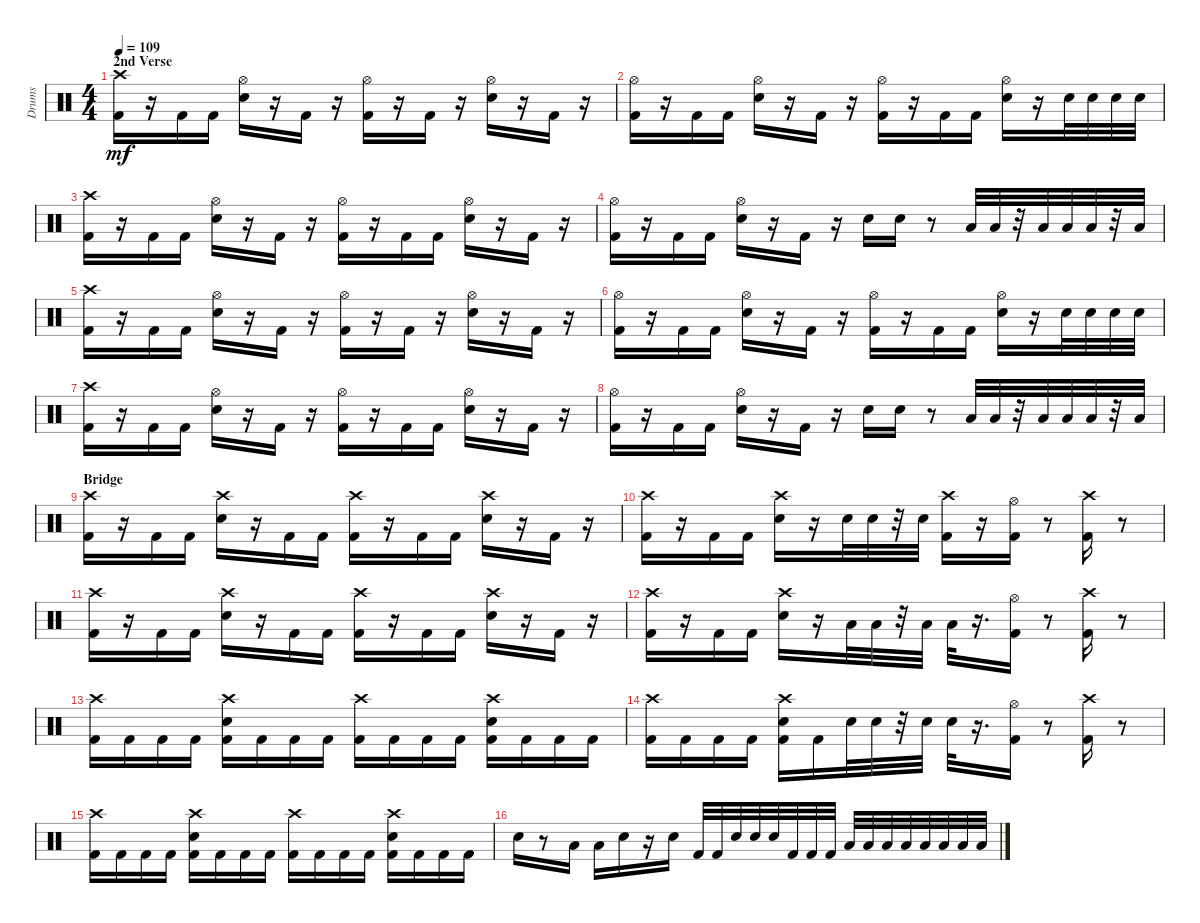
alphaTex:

\track ("Drums" "Drums") {instrument percussion}
\staff {score}
\articulation defaults
\ts (4 4)
\section ("" "2nd Verse")
\tempo 109
\clef neutral
\ks c
("Crash high (hit)" "Kick (hit) 2").16{dy mf} r.16 "Kick (hit) 2".16 "Kick (hit) 2".16 ("Hi-Hat (open)" "Snare (hit) 2").16 r.16 "Kick (hit) 2".16 r.16 ("Hi-Hat (open)" "Kick (hit) 2").16 r.16 "Kick (hit) 2".16 r.16 ("Hi-Hat (open)" "Snare (hit) 2").16 r.16 "Kick (hit) 2".16 r.16 |
("Kick (hit) 2" "Hi-Hat (open)").16 r.16 "Kick (hit) 2".16 "Kick (hit) 2".16 ("Snare (hit) 2" "Hi-Hat (open)").16 r.16 "Kick (hit) 2".16 r.16 ("Kick (hit) 2" "Hi-Hat (open)").16 r.16 "Kick (hit) 2".16 "Kick (hit) 2".16 ("Hi-Hat (open)" "Snare (hit) 2").16 r.16 "Snare (hit) 2".32 "Snare (hit) 2".32 "Snare (hit) 2".32 "Snare (hit) 2".32 |
("Crash high (hit)" "Kick (hit) 2").16 r.16 "Kick (hit) 2".16 "Kick (hit) 2".16 ("Hi-Hat (open)" "Snare (hit) 2").16 r.16 "Kick (hit) 2".16 r.16 ("Hi-Hat (open)" "Kick (hit) 2").16 r.16 "Kick (hit) 2".16 "Kick (hit) 2".16 ("Hi-Hat (open)" "Snare (hit) 2").16 r.16 "Kick (hit) 2".16 r.16 |
("Kick (hit) 2" "Hi-Hat (open)").16 r.16 "Kick (hit) 2".16 "Kick (hit) 2".16 ("Snare (hit) 2" "Hi-Hat (open)").16 r.16 "Kick (hit) 2".16 r.16 "Snare (hit) 2".16 "Snare (hit) 2".16 r.8 "Low Tom (hit)".32 "Low Tom (hit)".32 r.32 "Low Tom (hit)".32 "Low Floor Tom (hit)".32 "Low Floor Tom (hit)".32 r.32 "Low Floor Tom (hit)".32 |
("Crash high (hit)" "Kick (hit) 2").16 r.16 "Kick (hit) 2".16 "Kick (hit) 2".16 ("Hi-Hat (open)" "Snare (hit) 2").16 r.16 "Kick (hit) 2".16 r.16 ("Hi-Hat (open)" "Kick (hit) 2").16 r.16 "Kick (hit) 2".16 r.16 ("Hi-Hat (open)" "Snare (hit) 2").16 r.16 "Kick (hit) 2".16 r.16 |
("Kick (hit) 2" "Hi-Hat (open)").16 r.16 "Kick (hit) 2".16 "Kick (hit) 2".16 ("Snare (hit) 2" "Hi-Hat (open)").16 r.16 "Kick (hit) 2".16 r.16 ("Kick (hit) 2" "Hi-Hat (open)").16 r.16 "Kick (hit) 2".16 "Kick (hit) 2".16 ("Hi-Hat (open)" "Snare (hit) 2").16 r.16 "Snare (hit) 2".32 "Snare (hit) 2".32 "Snare (hit) 2".32 "Snare (hit) 2".32 |
("Crash high (hit)" "Kick (hit) 2").16 r.16 "Kick (hit) 2".16 "Kick (hit) 2".16 ("Hi-Hat (open)" "Snare (hit) 2").16 r.16 "Kick (hit) 2".16 r.16 ("Hi-Hat (open)" "Kick (hit) 2").16 r.16 "Kick (hit) 2".16 "Kick (hit) 2".16 ("Hi-Hat (open)" "Snare (hit) 2").16 r.16 "Kick (hit) 2".16 r.16 |
("Kick (hit) 2" "Hi-Hat (open)").16 r.16 "Kick (hit) 2".16 "Kick (hit) 2".16 ("Snare (hit) 2" "Hi-Hat (open)").16 r.16 "Kick (hit) 2".16 r.16 "Snare (hit) 2".16 "Snare (hit) 2".16 r.8 "Low Tom (hit)".32 "Low Tom (hit)".32 r.32 "Low Tom (hit)".32 "Low Floor Tom (hit)".32 "Low Floor Tom (hit)".32 r.32 "Low Floor Tom (hit)".32 |
\section ("" "Bridge")
("Crash high (hit)" "Kick (hit) 2").16 r.16 "Kick (hit) 2".16 "Kick (hit) 2".16 ("Snare (hit) 2" "Crash high (hit)").16 r.16 "Kick (hit) 2".16 "Kick (hit) 2".16 ("Kick (hit) 2" "Crash high (hit)").16 r.16 "Kick (hit) 2".16 "Kick (hit) 2".16 ("Snare (hit) 2" "Crash high (hit)").16 r.16 "Kick (hit) 2".16 r.16 |
("Kick (hit) 2" "Crash high (hit)").16 r.16 "Kick (hit) 2".16 "Kick (hit) 2".16 ("Snare (hit) 2" "Crash high (hit)").16 r.16 "Snare (hit) 2".32 "Snare (hit) 2".32 r.32 "Snare (hit) 2".32 ("Kick (hit) 2" "Crash high (hit)").16 r.16 ("Kick (hit) 2" "Hi-Hat (open)").16 r.8 ("Kick (hit) 2" "Crash high (hit)").16 r.8 |
("Crash high (hit)" "Kick (hit) 2").16 r.16 "Kick (hit) 2".16 "Kick (hit) 2".16 ("Snare (hit) 2" "Crash high (hit)").16 r.16 "Kick (hit) 2".16 "Kick (hit) 2".16 ("Kick (hit) 2" "Crash high (hit)").16 r.16 "Kick (hit) 2".16 "Kick (hit) 2".16 ("Snare (hit) 2" "Crash high (hit)").16 r.16 "Kick (hit) 2".16 r.16 |
("Kick (hit) 2" "Crash high (hit)").16 r.16 "Kick (hit) 2".16 "Kick (hit) 2".16 ("Snare (hit) 2" "Crash high (hit)").16 r.16 "Low Tom (hit)".32 "Low Tom (hit)".32 r.32 "Low Tom (hit)".32 "Low Tom (hit)".32 r.16{d} ("Kick (hit) 2" "Hi-Hat (open)").16 r.8 ("Kick (hit) 2" "Crash high (hit)").16 r.8 |
("Crash high (hit)" "Kick (hit) 2").16 "Kick (hit) 2".16 "Kick (hit) 2".16 "Kick (hit) 2".16 ("Snare (hit) 2" "Crash high (hit)" "Kick (hit) 2").16 "Kick (hit) 2".16 "Kick (hit) 2".16 "Kick (hit) 2".16 ("Kick (hit) 2" "Crash high (hit)").16 "Kick (hit) 2".16 "Kick (hit) 2".16 "Kick (hit) 2".16 ("Snare (hit) 2" "Crash high (hit)" "Kick (hit) 2").16 "Kick (hit) 2".16 "Kick (hit) 2".16 "Kick (hit) 2".16 |
("Kick (hit) 2" "Crash high (hit)").16 "Kick (hit) 2".16 "Kick (hit) 2".16 "Kick (hit) 2".16 ("Snare (hit) 2" "Crash high (hit)" "Kick (hit) 2").16 "Kick (hit) 2".16 "Snare (hit) 2".32 "Snare (hit) 2".32 r.32 "Snare (hit) 2".32 "Snare (hit) 2".32 r.16{d} ("Kick (hit) 2" "Hi-Hat (open)").16 r.8 ("Kick (hit) 2" "Crash high (hit)").16 r.8 |
("Crash high (hit)" "Kick (hit) 2").16 "Kick (hit) 2".16 "Kick (hit) 2".16 "Kick (hit) 2".16 ("Snare (hit) 2" "Crash high (hit)" "Kick (hit) 2").16 "Kick (hit) 2".16 "Kick (hit) 2".16 "Kick (hit) 2".16 ("Kick (hit) 2" "Crash high (hit)").16 "Kick (hit) 2".16 "Kick (hit) 2".16 "Kick (hit) 2".16 ("Snare (hit) 2" "Crash high (hit)" "Kick (hit) 2").16 "Kick (hit) 2".16 "Kick (hit) 2".16 "Kick (hit) 2".16 |
"Snare (hit) 2".16 r.8 "Low Tom (hit)".16 "Low Tom (hit)".16 "Snare (hit) 2".16 r.16 "Snare (hit) 2".16 "Kick (hit) 2".32 "Kick (hit) 2".32 "Snare (hit) 2".32 "Snare (hit) 2".32 "Snare (hit) 2".32 "Kick (hit) 2".32 "Kick (hit) 2".32 "Kick (hit) 2".32 "Low Tom (hit)".32 "Low Tom (hit)".32 "Low Tom (hit)".32 "Low Tom (hit)".32 "Low Floor Tom (hit)".32 "Low Floor Tom (hit)".32 "Low Floor Tom (hit)".32 "Low Floor Tom (hit)".32
